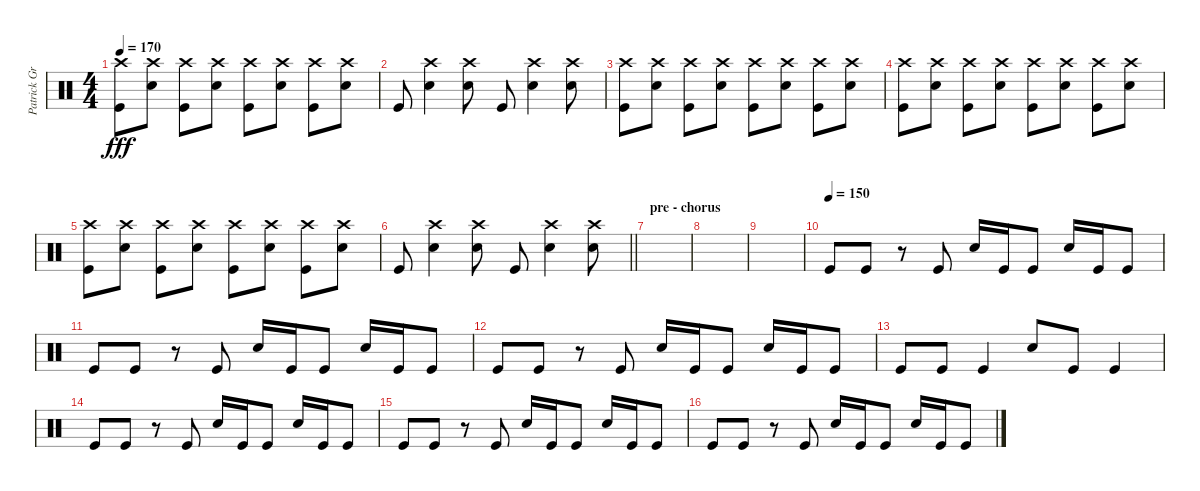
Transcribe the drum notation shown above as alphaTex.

\track ("Patrick Grün - Drums" "Patrick Gr") {instrument percussion}
\staff {score}
\articulation defaults
\ts (4 4)
\tempo 170
\clef neutral
\ks c
("Kick (hit)" "Crash high (hit)").8{dy fff} ("Snare (hit) 2" "Crash high (hit)").8 ("Kick (hit)" "Crash high (hit)").8 ("Snare (hit) 2" "Crash high (hit)").8 ("Kick (hit)" "Crash high (hit)").8 ("Snare (hit) 2" "Crash high (hit)").8 ("Kick (hit)" "Crash high (hit)").8 ("Snare (hit) 2" "Crash high (hit)").8 |
"Kick (hit)".8 ("Snare (hit) 2" "Crash high (hit)").4 ("Snare (hit) 2" "Crash high (hit)").8 "Kick (hit)".8 ("Snare (hit) 2" "Crash high (hit)").4 ("Snare (hit) 2" "Crash high (hit)").8 |
("Kick (hit)" "Crash high (hit)").8 ("Snare (hit) 2" "Crash high (hit)").8 ("Kick (hit)" "Crash high (hit)").8 ("Snare (hit) 2" "Crash high (hit)").8 ("Kick (hit)" "Crash high (hit)").8 ("Snare (hit) 2" "Crash high (hit)").8 ("Kick (hit)" "Crash high (hit)").8 ("Snare (hit) 2" "Crash high (hit)").8 |
("Kick (hit)" "Crash high (hit)").8 ("Snare (hit) 2" "Crash high (hit)").8 ("Kick (hit)" "Crash high (hit)").8 ("Snare (hit) 2" "Crash high (hit)").8 ("Kick (hit)" "Crash high (hit)").8 ("Snare (hit) 2" "Crash high (hit)").8 ("Kick (hit)" "Crash high (hit)").8 ("Snare (hit) 2" "Crash high (hit)").8 |
("Kick (hit)" "Crash high (hit)").8 ("Snare (hit) 2" "Crash high (hit)").8 ("Kick (hit)" "Crash high (hit)").8 ("Snare (hit) 2" "Crash high (hit)").8 ("Kick (hit)" "Crash high (hit)").8 ("Snare (hit) 2" "Crash high (hit)").8 ("Kick (hit)" "Crash high (hit)").8 ("Snare (hit) 2" "Crash high (hit)").8 |
\barLineRight lightlight "Kick (hit)".8
("Snare (hit) 2" "Crash high (hit)").4 ("Snare (hit) 2" "Crash high (hit)").8 "Kick (hit)".8 ("Snare (hit) 2" "Crash high (hit)").4 ("Snare (hit) 2" "Crash high (hit)").8 |
\section ("" "pre - chorus")
|
|
|
\tempo (150)
"Kick (hit)".8 "Kick (hit)".8 r.8 "Kick (hit)".8 "Snare (hit) 2".16 "Kick (hit)".16 "Kick (hit)".8 "Snare (hit) 2".16 "Kick (hit)".16 "Kick (hit)".8 |
"Kick (hit)".8 "Kick (hit)".8 r.8 "Kick (hit)".8 "Snare (hit) 2".16 "Kick (hit)".16 "Kick (hit)".8 "Snare (hit) 2".16 "Kick (hit)".16 "Kick (hit)".8 |
"Kick (hit)".8 "Kick (hit)".8 r.8 "Kick (hit)".8 "Snare (hit) 2".16 "Kick (hit)".16 "Kick (hit)".8 "Snare (hit) 2".16 "Kick (hit)".16 "Kick (hit)".8 |
"Kick (hit)".8 "Kick (hit)".8 "Kick (hit)".4 "Snare (hit) 2".8 "Kick (hit)".8 "Kick (hit)".4 |
"Kick (hit)".8 "Kick (hit)".8 r.8 "Kick (hit)".8 "Snare (hit) 2".16 "Kick (hit)".16 "Kick (hit)".8 "Snare (hit) 2".16 "Kick (hit)".16 "Kick (hit)".8 |
"Kick (hit)".8 "Kick (hit)".8 r.8 "Kick (hit)".8 "Snare (hit) 2".16 "Kick (hit)".16 "Kick (hit)".8 "Snare (hit) 2".16 "Kick (hit)".16 "Kick (hit)".8 |
"Kick (hit)".8 "Kick (hit)".8 r.8 "Kick (hit)".8 "Snare (hit) 2".16 "Kick (hit)".16 "Kick (hit)".8 "Snare (hit) 2".16 "Kick (hit)".16 "Kick (hit)".8
